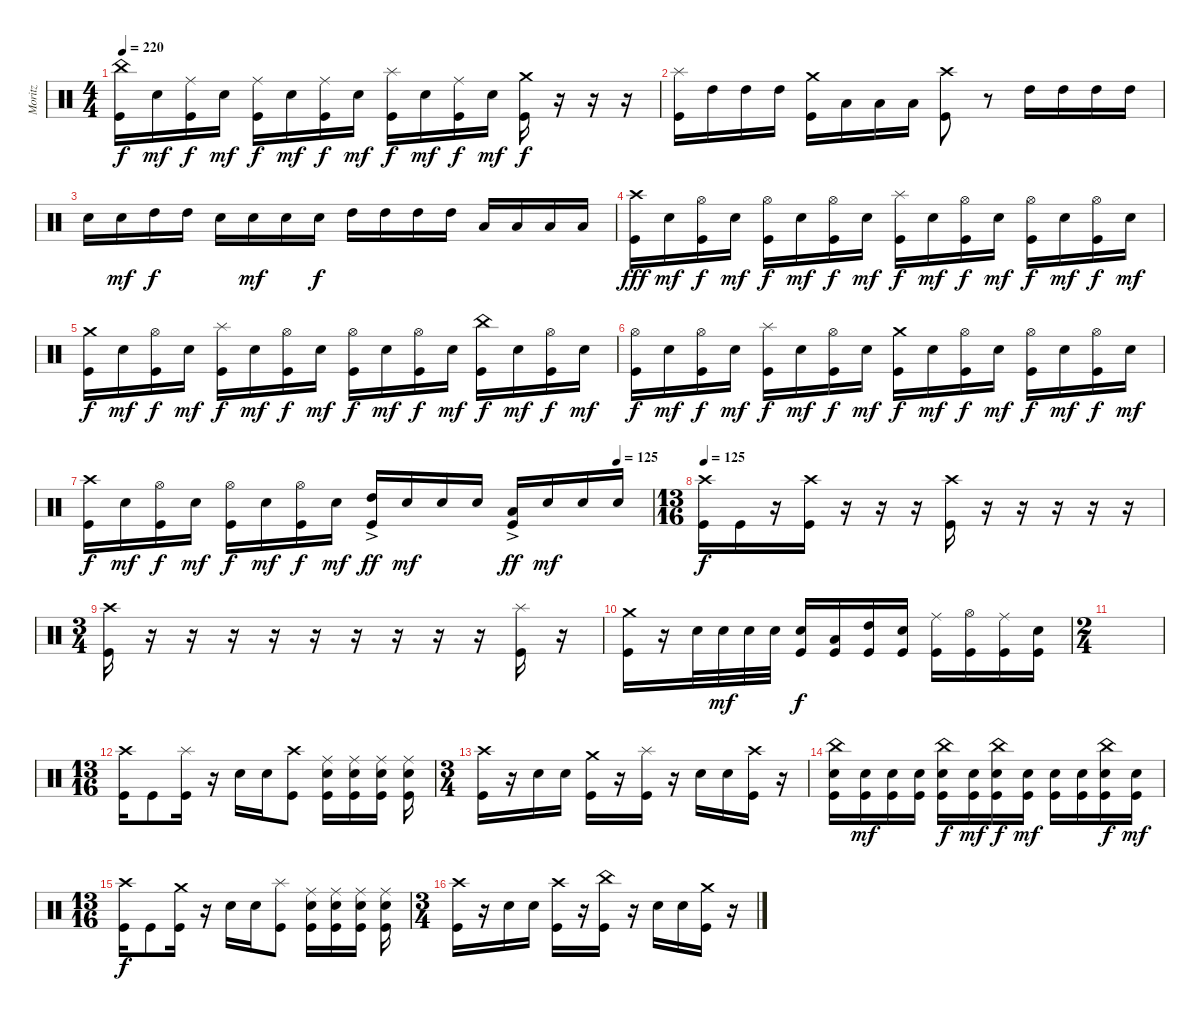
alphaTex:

\track ("Moritz" "Moritz") {instrument percussion}
\staff {score}
\articulation defaults
\ts (4 4)
\tempo 220
\clef neutral
\ks c
("China (hit)" "Kick (hit)").16{dy f} "Snare (hit) 2".16{dy mf} ("Ride (middle)" "Kick (hit)").16{dy f} "Snare (hit) 2".16{dy mf} ("Ride (middle)" "Kick (hit)").16{dy f} "Snare (hit) 2".16{dy mf} ("Ride (middle)" "Kick (hit)").16{dy f} "Snare (hit) 2".16{dy mf} ("Splash (hit)" "Kick (hit)").16{dy f} "Snare (hit) 2".16{dy mf} ("Ride (middle)" "Kick (hit)").16{dy f} "Snare (hit) 2".16{dy mf} ("Crash medium (hit)" "Kick (hit)").16{dy f} r.16 r.16 r.16 |
("Splash (hit)" "Kick (hit)").16 "High Tom (hit)".16 "High Tom (hit)".16 "High Tom (hit)".16 ("Crash medium (hit)" "Kick (hit)").16 "Low Tom (hit)".16 "Low Tom (hit)".16 "Low Tom (hit)".16 ("Crash high (hit)" "Kick (hit)").8 r.8 "High Tom (hit)".16 "High Tom (hit)".16 "High Tom (hit)".16 "High Tom (hit)".16 |
"Snare (hit) 2".16 "Snare (hit) 2".16{dy mf} "High Tom (hit)".16{dy f} "High Tom (hit)".16 "Snare (hit) 2".16 "Snare (hit) 2".16{dy mf} "Snare (hit) 2".16 "Snare (hit) 2".16{dy f} "High Tom (hit)".16 "High Tom (hit)".16 "High Tom (hit)".16 "High Tom (hit)".16 "Low Tom (hit)".16 "Low Tom (hit)".16 "Low Tom (hit)".16 "Low Tom (hit)".16 |
("Crash high (hit)" "Kick (hit)").16{dy fff} "Snare (hit) 2".16{dy mf} ("Hi-Hat (open)" "Kick (hit)").16{dy f} "Snare (hit) 2".16{dy mf} ("Hi-Hat (open)" "Kick (hit)").16{dy f} "Snare (hit) 2".16{dy mf} ("Hi-Hat (open)" "Kick (hit)").16{dy f} "Snare (hit) 2".16{dy mf} ("Splash (hit)" "Kick (hit)").16{dy f} "Snare (hit) 2".16{dy mf} ("Hi-Hat (open)" "Kick (hit)").16{dy f} "Snare (hit) 2".16{dy mf} ("Hi-Hat (open)" "Kick (hit)").16{dy f} "Snare (hit) 2".16{dy mf} ("Hi-Hat (open)" "Kick (hit)").16{dy f} "Snare (hit) 2".16{dy mf} |
("Crash medium (hit)" "Kick (hit)").16{dy f} "Snare (hit) 2".16{dy mf} ("Hi-Hat (open)" "Kick (hit)").16{dy f} "Snare (hit) 2".16{dy mf} ("Splash (hit)" "Kick (hit)").16{dy f} "Snare (hit) 2".16{dy mf} ("Hi-Hat (open)" "Kick (hit)").16{dy f} "Snare (hit) 2".16{dy mf} ("Hi-Hat (open)" "Kick (hit)").16{dy f} "Snare (hit) 2".16{dy mf} ("Hi-Hat (open)" "Kick (hit)").16{dy f} "Snare (hit) 2".16{dy mf} ("China (hit)" "Kick (hit)").16{dy f} "Snare (hit) 2".16{dy mf} ("Hi-Hat (open)" "Kick (hit)").16{dy f} "Snare (hit) 2".16{dy mf} |
("Hi-Hat (open)" "Kick (hit)").16{dy f} "Snare (hit) 2".16{dy mf} ("Hi-Hat (open)" "Kick (hit)").16{dy f} "Snare (hit) 2".16{dy mf} ("Splash (hit)" "Kick (hit)").16{dy f} "Snare (hit) 2".16{dy mf} ("Hi-Hat (open)" "Kick (hit)").16{dy f} "Snare (hit) 2".16{dy mf} ("Crash medium (hit)" "Kick (hit)").16{dy f} "Snare (hit) 2".16{dy mf} ("Hi-Hat (open)" "Kick (hit)").16{dy f} "Snare (hit) 2".16{dy mf} ("Hi-Hat (open)" "Kick (hit)").16{dy f} "Snare (hit) 2".16{dy mf} ("Hi-Hat (open)" "Kick (hit)").16{dy f} "Snare (hit) 2".16{dy mf} |
\tempo (125 0.9375)
("Crash high (hit)" "Kick (hit)").16{dy f} "Snare (hit) 2".16{dy mf} ("Hi-Hat (open)" "Kick (hit)").16{dy f} "Snare (hit) 2".16{dy mf} ("Hi-Hat (open)" "Kick (hit)").16{dy f} "Snare (hit) 2".16{dy mf} ("Hi-Hat (open)" "Kick (hit)").16{dy f} "Snare (hit) 2".16{dy mf} ("High Tom (hit)"{ac} "Kick (hit)"{ac}).16{dy ff} "Snare (hit) 2".16{dy mf} "Snare (hit) 2".16 "Snare (hit) 2".16 ("Low Tom (hit)"{ac} "Kick (hit)"{ac}).16{dy ff} "Snare (hit) 2".16{dy mf} "Snare (hit) 2".16 "Snare (hit) 2".16 |
\ts (13 16)
\tempo 125
("Crash high (hit)" "Kick (hit)").16{dy f} "Kick (hit)".16 r.16 ("Crash high (hit)" "Kick (hit)").16 r.16 r.16 r.16 ("Crash high (hit)" "Kick (hit)").16 r.16 r.16 r.16 r.16 r.16 |
\ts (3 4)
("Crash high (hit)" "Kick (hit)").16 r.16 r.16 r.16 r.16 r.16 r.16 r.16 r.16 r.16 ("Splash (hit)" "Kick (hit)").16 r.16 |
("Crash medium (hit)" "Kick (hit)").16 r.16 "Snare (hit) 2".32 "Snare (hit) 2".32{dy mf} "Snare (hit) 2".32 "Snare (hit) 2".32 ("Kick (hit)" "Snare (hit) 2").16{dy f} ("Kick (hit)" "Low Floor Tom (hit)").16 ("Kick (hit)" "High Tom (hit)").16 ("Kick (hit)" "Snare (hit) 2").16 ("Kick (hit)" "Ride (middle)").16 ("Kick (hit)" "Hi-Hat (open)").16 ("Kick (hit)" "Ride (middle)").16 ("Kick (hit)" "Snare (hit) 2").16 |
\ts (2 4)
|
\ts (13 16)
("Crash high (hit)" "Kick (hit)").16 "Kick (hit)".8 ("Splash (hit)" "Kick (hit)").16 r.16 "Snare (hit) 2".16 "Snare (hit) 2".16 ("Crash high (hit)" "Kick (hit)").8 ("Ride (middle)" "Snare (hit) 2" "Kick (hit)").16 ("Ride (middle)" "Snare (hit) 2" "Kick (hit)").16 ("Ride (middle)" "Snare (hit) 2" "Kick (hit)").16 ("Ride (middle)" "Snare (hit) 2" "Kick (hit)").16 |
\ts (3 4)
("Crash high (hit)" "Kick (hit)").16 r.16 "Snare (hit) 2".16 "Snare (hit) 2".16 ("Crash medium (hit)" "Kick (hit)").16 r.16 ("Splash (hit)" "Kick (hit)").16 r.16 "Snare (hit) 2".16 "Snare (hit) 2".16 ("Crash high (hit)" "Kick (hit)").16 r.16 |
("China (hit)" "Snare (hit) 2" "Kick (hit)").16 ("Snare (hit) 2" "Kick (hit)").16{dy mf} ("Snare (hit) 2" "Kick (hit)").16 ("Snare (hit) 2" "Kick (hit)").16 ("China (hit)" "Snare (hit) 2" "Kick (hit)").16{dy f} ("Snare (hit) 2" "Kick (hit)").16{dy mf} ("China (hit)" "Snare (hit) 2" "Kick (hit)").16{dy f} ("Snare (hit) 2" "Kick (hit)").16{dy mf} ("Snare (hit) 2" "Kick (hit)").16 ("Snare (hit) 2" "Kick (hit)").16 ("China (hit)" "Snare (hit) 2" "Kick (hit)").16{dy f} ("Snare (hit) 2" "Kick (hit)").16{dy mf} |
\ts (13 16)
("Crash high (hit)" "Kick (hit)").16{dy f} "Kick (hit)".8 ("Crash medium (hit)" "Kick (hit)").16 r.16 "Snare (hit) 2".16 "Snare (hit) 2".16 ("Splash (hit)" "Kick (hit)").8 ("Ride (middle)" "Snare (hit) 2" "Kick (hit)").16 ("Ride (middle)" "Snare (hit) 2" "Kick (hit)").16 ("Ride (middle)" "Snare (hit) 2" "Kick (hit)").16 ("Ride (middle)" "Snare (hit) 2" "Kick (hit)").16 |
\ts (3 4)
("Crash high (hit)" "Kick (hit)").16 r.16 "Snare (hit) 2".16 "Snare (hit) 2".16 ("Crash high (hit)" "Kick (hit)").16 r.16 ("China (hit)" "Kick (hit)").16 r.16 "Snare (hit) 2".16 "Snare (hit) 2".16 ("Crash medium (hit)" "Kick (hit)").16 r.16
